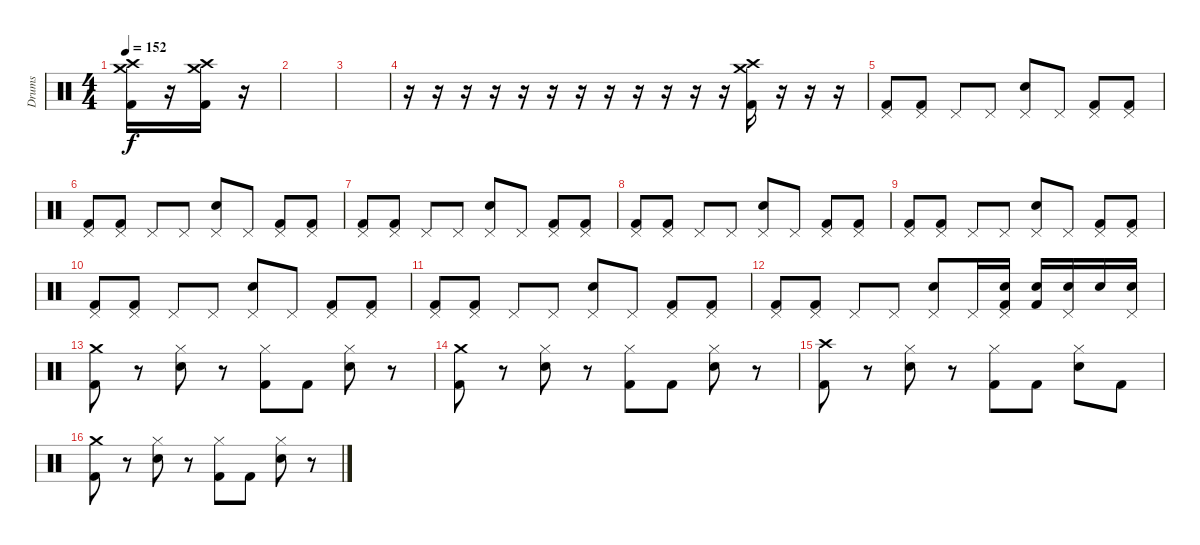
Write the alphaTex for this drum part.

\track ("Drums" "Drums") {instrument percussion}
\staff {score}
\articulation defaults
\ts (4 4)
\tempo 152
\clef neutral
\ks c
("Crash high (hit)" "Crash medium (hit)" "Kick (hit) 2").16{dy f} r.16 ("Crash high (hit)" "Crash medium (hit)" "Kick (hit) 2").16 r.16 |
|
|
r.16 r.16 r.16 r.16 r.16 r.16 r.16 r.16 r.16 r.16 r.16 r.16 ("Crash high (hit)" "Crash medium (hit)" "Kick (hit) 2").16 r.16 r.16 r.16 |
("Pedal Hi-Hat (hit)" "Kick (hit) 2").8 ("Pedal Hi-Hat (hit)" "Kick (hit) 2").8 "Pedal Hi-Hat (hit)".8 "Pedal Hi-Hat (hit)".8 ("Pedal Hi-Hat (hit)" "Electric Snare (hit)").8 "Pedal Hi-Hat (hit)".8 ("Pedal Hi-Hat (hit)" "Kick (hit) 2").8 ("Pedal Hi-Hat (hit)" "Kick (hit) 2").8 |
("Pedal Hi-Hat (hit)" "Kick (hit) 2").8 ("Pedal Hi-Hat (hit)" "Kick (hit) 2").8 "Pedal Hi-Hat (hit)".8 "Pedal Hi-Hat (hit)".8 ("Pedal Hi-Hat (hit)" "Electric Snare (hit)").8 "Pedal Hi-Hat (hit)".8 ("Pedal Hi-Hat (hit)" "Kick (hit) 2").8 ("Pedal Hi-Hat (hit)" "Kick (hit) 2").8 |
("Pedal Hi-Hat (hit)" "Kick (hit) 2").8 ("Pedal Hi-Hat (hit)" "Kick (hit) 2").8 "Pedal Hi-Hat (hit)".8 "Pedal Hi-Hat (hit)".8 ("Pedal Hi-Hat (hit)" "Electric Snare (hit)").8 "Pedal Hi-Hat (hit)".8 ("Pedal Hi-Hat (hit)" "Kick (hit) 2").8 ("Pedal Hi-Hat (hit)" "Kick (hit) 2").8 |
("Pedal Hi-Hat (hit)" "Kick (hit) 2").8 ("Pedal Hi-Hat (hit)" "Kick (hit) 2").8 "Pedal Hi-Hat (hit)".8 "Pedal Hi-Hat (hit)".8 ("Pedal Hi-Hat (hit)" "Electric Snare (hit)").8 "Pedal Hi-Hat (hit)".8 ("Pedal Hi-Hat (hit)" "Kick (hit) 2").8 ("Pedal Hi-Hat (hit)" "Kick (hit) 2").8 |
("Pedal Hi-Hat (hit)" "Kick (hit) 2").8 ("Pedal Hi-Hat (hit)" "Kick (hit) 2").8 "Pedal Hi-Hat (hit)".8 "Pedal Hi-Hat (hit)".8 ("Pedal Hi-Hat (hit)" "Electric Snare (hit)").8 "Pedal Hi-Hat (hit)".8 ("Pedal Hi-Hat (hit)" "Kick (hit) 2").8 ("Pedal Hi-Hat (hit)" "Kick (hit) 2").8 |
("Pedal Hi-Hat (hit)" "Kick (hit) 2").8 ("Pedal Hi-Hat (hit)" "Kick (hit) 2").8 "Pedal Hi-Hat (hit)".8 "Pedal Hi-Hat (hit)".8 ("Pedal Hi-Hat (hit)" "Electric Snare (hit)").8 "Pedal Hi-Hat (hit)".8 ("Pedal Hi-Hat (hit)" "Kick (hit) 2").8 ("Pedal Hi-Hat (hit)" "Kick (hit) 2").8 |
("Pedal Hi-Hat (hit)" "Kick (hit) 2").8 ("Pedal Hi-Hat (hit)" "Kick (hit) 2").8 "Pedal Hi-Hat (hit)".8 "Pedal Hi-Hat (hit)".8 ("Pedal Hi-Hat (hit)" "Electric Snare (hit)").8 "Pedal Hi-Hat (hit)".8 ("Pedal Hi-Hat (hit)" "Kick (hit) 2").8 ("Pedal Hi-Hat (hit)" "Kick (hit) 2").8 |
("Pedal Hi-Hat (hit)" "Kick (hit) 2").8 ("Pedal Hi-Hat (hit)" "Kick (hit) 2").8 "Pedal Hi-Hat (hit)".8 "Pedal Hi-Hat (hit)".8 ("Pedal Hi-Hat (hit)" "Electric Snare (hit)").8 "Pedal Hi-Hat (hit)".16 ("Pedal Hi-Hat (hit)" "Electric Snare (hit)" "Kick (hit) 2").16 ("Electric Snare (hit)" "Kick (hit) 2").16 ("Pedal Hi-Hat (hit)" "Electric Snare (hit)").16 "Electric Snare (hit)".16 ("Pedal Hi-Hat (hit)" "Electric Snare (hit)").16 |
("Crash medium (hit)" "Kick (hit) 2").8 r.8 ("Hi-Hat (closed)" "Electric Snare (hit)").8 r.8 ("Hi-Hat (closed)" "Kick (hit) 2").8 "Kick (hit) 2".8 ("Hi-Hat (closed)" "Electric Snare (hit)").8 r.8 |
("Crash medium (hit)" "Kick (hit) 2").8 r.8 ("Hi-Hat (closed)" "Electric Snare (hit)").8 r.8 ("Hi-Hat (closed)" "Kick (hit) 2").8 "Kick (hit) 2".8 ("Hi-Hat (closed)" "Electric Snare (hit)").8 r.8 |
("Crash high (hit)" "Kick (hit) 2").8 r.8 ("Hi-Hat (closed)" "Electric Snare (hit)").8 r.8 ("Hi-Hat (closed)" "Kick (hit) 2").8 "Kick (hit) 2".8 ("Hi-Hat (closed)" "Electric Snare (hit)").8 "Kick (hit) 2".8 |
("Crash medium (hit)" "Kick (hit) 2").8 r.8 ("Hi-Hat (closed)" "Electric Snare (hit)").8 r.8 ("Hi-Hat (closed)" "Kick (hit) 2").8 "Kick (hit) 2".8 ("Hi-Hat (closed)" "Electric Snare (hit)").8 r.8
